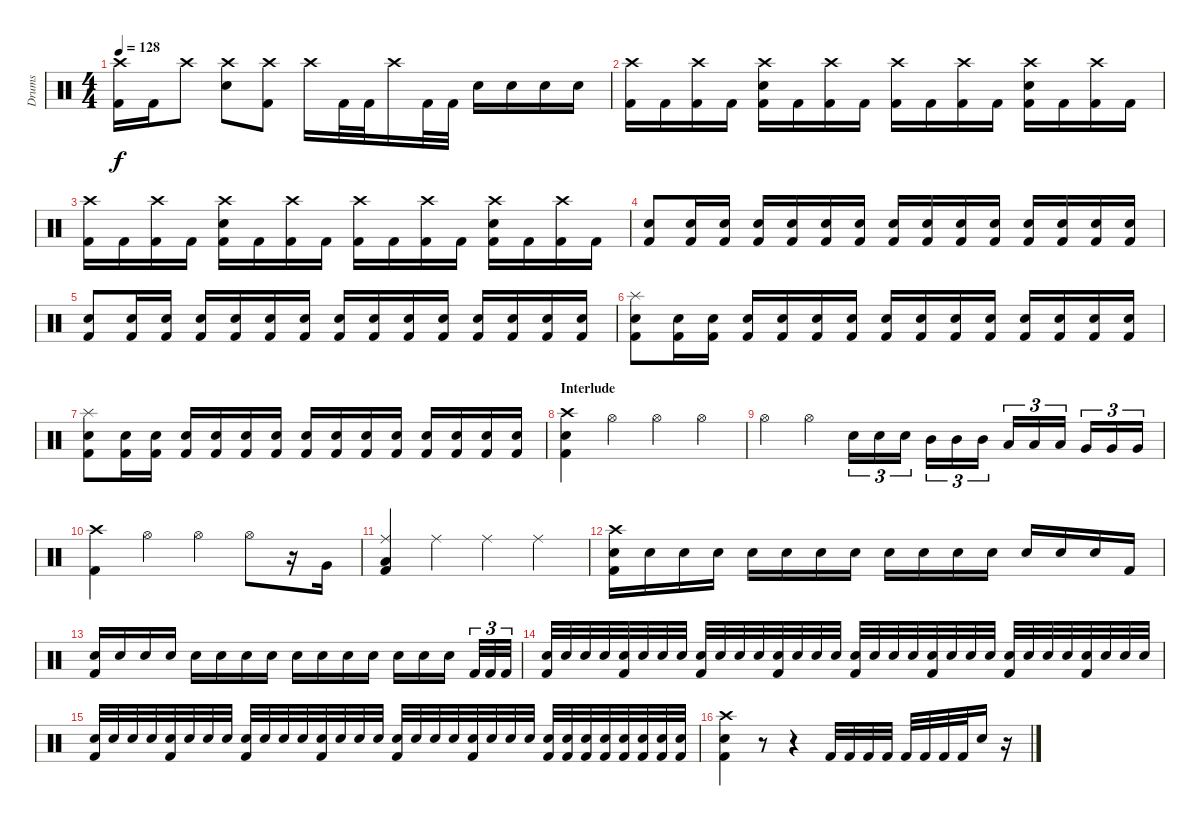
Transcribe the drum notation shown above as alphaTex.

\track ("Drums" "Drums") {instrument percussion}
\staff {score}
\articulation defaults
\ts (4 4)
\tempo 128
\clef neutral
\ks c
("Crash high (hit)" "Kick (hit) 2").16{dy f} "Kick (hit) 2".16 "Crash high (hit)".8 ("Crash high (hit)" "Electric Snare (hit)").8 ("Crash high (hit)" "Kick (hit) 2").8 "Crash high (hit)".16 "Kick (hit) 2".32 "Kick (hit) 2".32 "Crash high (hit)".16 "Kick (hit) 2".32 "Kick (hit) 2".32 "Electric Snare (hit)".16 "Electric Snare (hit)".16 "Electric Snare (hit)".16 "Electric Snare (hit)".16 |
("Crash high (hit)" "Kick (hit) 2").16 "Kick (hit) 2".16 ("Crash high (hit)" "Kick (hit) 2").16 "Kick (hit) 2".16 ("Crash high (hit)" "Electric Snare (hit)" "Kick (hit) 2").16 "Kick (hit) 2".16 ("Crash high (hit)" "Kick (hit) 2").16 "Kick (hit) 2".16 ("Crash high (hit)" "Kick (hit) 2").16 "Kick (hit) 2".16 ("Crash high (hit)" "Kick (hit) 2").16 "Kick (hit) 2".16 ("Crash high (hit)" "Electric Snare (hit)" "Kick (hit) 2").16 "Kick (hit) 2".16 ("Crash high (hit)" "Kick (hit) 2").16 "Kick (hit) 2".16 |
("Crash high (hit)" "Kick (hit) 2").16 "Kick (hit) 2".16 ("Crash high (hit)" "Kick (hit) 2").16 "Kick (hit) 2".16 ("Crash high (hit)" "Electric Snare (hit)" "Kick (hit) 2").16 "Kick (hit) 2".16 ("Crash high (hit)" "Kick (hit) 2").16 "Kick (hit) 2".16 ("Crash high (hit)" "Kick (hit) 2").16 "Kick (hit) 2".16 ("Crash high (hit)" "Kick (hit) 2").16 "Kick (hit) 2".16 ("Crash high (hit)" "Electric Snare (hit)" "Kick (hit) 2").16 "Kick (hit) 2".16 ("Crash high (hit)" "Kick (hit) 2").16 "Kick (hit) 2".16 |
("Electric Snare (hit)" "Kick (hit) 2").8 ("Electric Snare (hit)" "Kick (hit) 2").16 ("Electric Snare (hit)" "Kick (hit) 2").16 ("Electric Snare (hit)" "Kick (hit) 2").16 ("Electric Snare (hit)" "Kick (hit) 2").16 ("Electric Snare (hit)" "Kick (hit) 2").16 ("Electric Snare (hit)" "Kick (hit) 2").16 ("Electric Snare (hit)" "Kick (hit) 2").16 ("Electric Snare (hit)" "Kick (hit) 2").16 ("Electric Snare (hit)" "Kick (hit) 2").16 ("Electric Snare (hit)" "Kick (hit) 2").16 ("Electric Snare (hit)" "Kick (hit) 2").16 ("Electric Snare (hit)" "Kick (hit) 2").16 ("Electric Snare (hit)" "Kick (hit) 2").16 ("Electric Snare (hit)" "Kick (hit) 2").16 |
("Electric Snare (hit)" "Kick (hit) 2").8 ("Electric Snare (hit)" "Kick (hit) 2").16 ("Electric Snare (hit)" "Kick (hit) 2").16 ("Electric Snare (hit)" "Kick (hit) 2").16 ("Electric Snare (hit)" "Kick (hit) 2").16 ("Electric Snare (hit)" "Kick (hit) 2").16 ("Electric Snare (hit)" "Kick (hit) 2").16 ("Electric Snare (hit)" "Kick (hit) 2").16 ("Electric Snare (hit)" "Kick (hit) 2").16 ("Electric Snare (hit)" "Kick (hit) 2").16 ("Electric Snare (hit)" "Kick (hit) 2").16 ("Electric Snare (hit)" "Kick (hit) 2").16 ("Electric Snare (hit)" "Kick (hit) 2").16 ("Electric Snare (hit)" "Kick (hit) 2").16 ("Electric Snare (hit)" "Kick (hit) 2").16 |
("Splash (hit)" "Electric Snare (hit)" "Kick (hit) 2").8 ("Electric Snare (hit)" "Kick (hit) 2").16 ("Electric Snare (hit)" "Kick (hit) 2").16 ("Electric Snare (hit)" "Kick (hit) 2").16 ("Electric Snare (hit)" "Kick (hit) 2").16 ("Electric Snare (hit)" "Kick (hit) 2").16 ("Electric Snare (hit)" "Kick (hit) 2").16 ("Electric Snare (hit)" "Kick (hit) 2").16 ("Electric Snare (hit)" "Kick (hit) 2").16 ("Electric Snare (hit)" "Kick (hit) 2").16 ("Electric Snare (hit)" "Kick (hit) 2").16 ("Electric Snare (hit)" "Kick (hit) 2").16 ("Electric Snare (hit)" "Kick (hit) 2").16 ("Electric Snare (hit)" "Kick (hit) 2").16 ("Electric Snare (hit)" "Kick (hit) 2").16 |
("Splash (hit)" "Electric Snare (hit)" "Kick (hit) 2").8 ("Electric Snare (hit)" "Kick (hit) 2").16 ("Electric Snare (hit)" "Kick (hit) 2").16 ("Electric Snare (hit)" "Kick (hit) 2").16 ("Electric Snare (hit)" "Kick (hit) 2").16 ("Electric Snare (hit)" "Kick (hit) 2").16 ("Electric Snare (hit)" "Kick (hit) 2").16 ("Electric Snare (hit)" "Kick (hit) 2").16 ("Electric Snare (hit)" "Kick (hit) 2").16 ("Electric Snare (hit)" "Kick (hit) 2").16 ("Electric Snare (hit)" "Kick (hit) 2").16 ("Electric Snare (hit)" "Kick (hit) 2").16 ("Electric Snare (hit)" "Kick (hit) 2").16 ("Electric Snare (hit)" "Kick (hit) 2").16 ("Electric Snare (hit)" "Kick (hit) 2").16 |
\section ("" "Interlude")
("Crash high (hit)" "Electric Snare (hit)" "Kick (hit) 2").4 "Hi-Hat (open)".4 "Hi-Hat (open)".4 "Hi-Hat (open)".4 |
"Hi-Hat (open)".4 "Hi-Hat (open)".4 "Electric Snare (hit)".16{tu (3 2)} "Electric Snare (hit)".16{tu (3 2)} "Electric Snare (hit)".16{tu (3 2)} "Mid Tom (hit)".16{tu (3 2)} "Mid Tom (hit)".16{tu (3 2)} "Mid Tom (hit)".16{tu (3 2)} "Low Tom (hit)".16{tu (3 2)} "Low Tom (hit)".16{tu (3 2)} "Low Tom (hit)".16{tu (3 2)} "Very Low Tom (hit)".16{tu (3 2)} "Very Low Tom (hit)".16{tu (3 2)} "Very Low Tom (hit)".16{tu (3 2)} |
("Crash high (hit)" "Kick (hit) 2").4 "Hi-Hat (open)".4 "Hi-Hat (open)".4 "Hi-Hat (open)".8 r.16 "Very Low Tom (hit)".16 |
("Ride (middle)" "Low Floor Tom (hit)" "Kick (hit) 2").4 "Ride (middle)".4 "Ride (middle)".4 "Ride (middle)".4 |
("Crash high (hit)" "Electric Snare (hit)" "Kick (hit) 2").16 "Electric Snare (hit)".16 "Electric Snare (hit)".16 "Electric Snare (hit)".16 "Electric Snare (hit)".16 "Electric Snare (hit)".16 "Electric Snare (hit)".16 "Electric Snare (hit)".16 "Electric Snare (hit)".16 "Electric Snare (hit)".16 "Electric Snare (hit)".16 "Electric Snare (hit)".16 "Electric Snare (hit)".16 "Electric Snare (hit)".16 "Electric Snare (hit)".16 "Kick (hit) 2".16 |
("Electric Snare (hit)" "Kick (hit) 2").16 "Electric Snare (hit)".16 "Electric Snare (hit)".16 "Electric Snare (hit)".16 "Electric Snare (hit)".16 "Electric Snare (hit)".16 "Electric Snare (hit)".16 "Electric Snare (hit)".16 "Electric Snare (hit)".16 "Electric Snare (hit)".16 "Electric Snare (hit)".16 "Electric Snare (hit)".16 "Electric Snare (hit)".16 "Electric Snare (hit)".16 "Electric Snare (hit)".16 "Kick (hit) 2".32{tu (3 2)} "Kick (hit) 2".32{tu (3 2)} "Kick (hit) 2".32{tu (3 2)} |
("Electric Snare (hit)" "Kick (hit) 2").32 "Electric Snare (hit)".32 "Electric Snare (hit)".32 "Electric Snare (hit)".32 ("Electric Snare (hit)" "Kick (hit) 2").32 "Electric Snare (hit)".32 "Electric Snare (hit)".32 "Electric Snare (hit)".32 ("Electric Snare (hit)" "Kick (hit) 2").32 "Electric Snare (hit)".32 "Electric Snare (hit)".32 "Electric Snare (hit)".32 ("Electric Snare (hit)" "Kick (hit) 2").32 "Electric Snare (hit)".32 "Electric Snare (hit)".32 "Electric Snare (hit)".32 ("Electric Snare (hit)" "Kick (hit) 2").32 "Electric Snare (hit)".32 "Electric Snare (hit)".32 "Electric Snare (hit)".32 ("Electric Snare (hit)" "Kick (hit) 2").32 "Electric Snare (hit)".32 "Electric Snare (hit)".32 "Electric Snare (hit)".32 ("Electric Snare (hit)" "Kick (hit) 2").32 "Electric Snare (hit)".32 "Electric Snare (hit)".32 "Electric Snare (hit)".32 ("Electric Snare (hit)" "Kick (hit) 2").32 "Electric Snare (hit)".32 "Electric Snare (hit)".32 "Electric Snare (hit)".32 |
("Electric Snare (hit)" "Kick (hit) 2").32 "Electric Snare (hit)".32 "Electric Snare (hit)".32 "Electric Snare (hit)".32 ("Electric Snare (hit)" "Kick (hit) 2").32 "Electric Snare (hit)".32 "Electric Snare (hit)".32 "Electric Snare (hit)".32 ("Electric Snare (hit)" "Kick (hit) 2").32 "Electric Snare (hit)".32 "Electric Snare (hit)".32 "Electric Snare (hit)".32 ("Electric Snare (hit)" "Kick (hit) 2").32 "Electric Snare (hit)".32 "Electric Snare (hit)".32 "Electric Snare (hit)".32 ("Electric Snare (hit)" "Kick (hit) 2").32 "Electric Snare (hit)".32 "Electric Snare (hit)".32 "Electric Snare (hit)".32 ("Electric Snare (hit)" "Kick (hit) 2").32 "Electric Snare (hit)".32 "Electric Snare (hit)".32 "Electric Snare (hit)".32 ("Electric Snare (hit)" "Kick (hit) 2").32 ("Electric Snare (hit)" "Kick (hit) 2").32 ("Electric Snare (hit)" "Kick (hit) 2").32 ("Electric Snare (hit)" "Kick (hit) 2").32 ("Electric Snare (hit)" "Kick (hit) 2").32 ("Electric Snare (hit)" "Kick (hit) 2").32 ("Electric Snare (hit)" "Kick (hit) 2").32 ("Electric Snare (hit)" "Kick (hit) 2").32 |
("Crash high (hit)" "Electric Snare (hit)" "Kick (hit) 2").4 r.8 r.4 "Kick (hit) 2".32 "Kick (hit) 2".32 "Kick (hit) 2".32 "Kick (hit) 2".32 "Kick (hit) 2".32 "Kick (hit) 2".32 "Kick (hit) 2".32 "Kick (hit) 2".32 "Electric Snare (hit)".16 r.16
